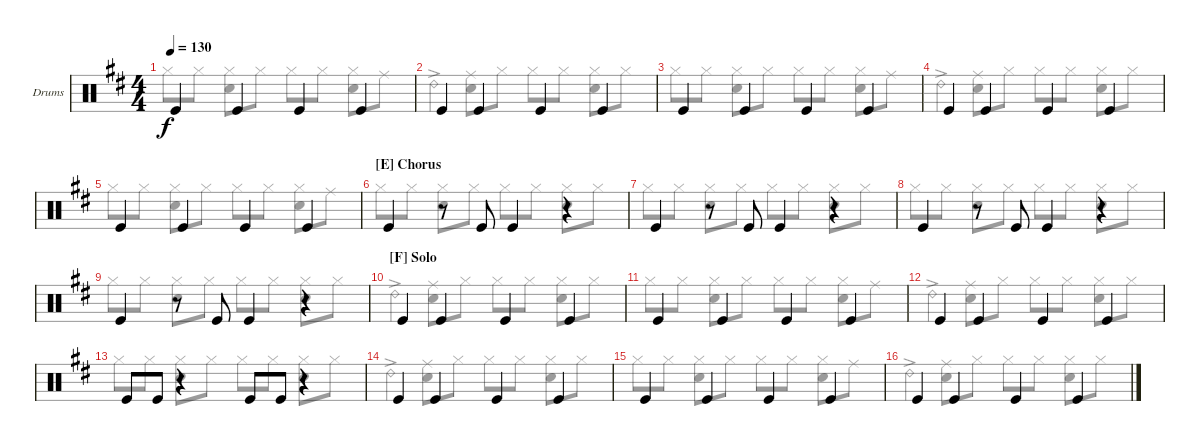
\bracketExtendMode groupsimilarinstruments
\firstSystemTrackNameOrientation horizontal
\otherSystemsTrackNameOrientation horizontal
\track ("Drumkit" "Drums") {instrument percussion}
\staff {score}
\articulation defaults
\voice
\ts (4 4)
\tempo 130
\clef neutral
\scale
1.05044
\ks d "Kick (hit)".4{dy f} "Kick (hit)".4 "Kick (hit)".4 "Kick (hit)".4
|
\scale
0.949559 "Kick (hit)".4 "Kick (hit)".4 "Kick (hit)".4 "Kick (hit)".4 |
\scale
1.05044 "Kick (hit)".4 "Kick (hit)".4 "Kick (hit)".4 "Kick (hit)".4 |
\scale
0.949559 "Kick (hit)".4 "Kick (hit)".4 "Kick (hit)".4 "Kick (hit)".4 |
\scale
1.05044 "Kick (hit)".4 "Kick (hit)".4 "Kick (hit)".4 "Kick (hit)".4 |
\section ("E" "Chorus")
\scale
0.949559 "Kick (hit)".4 r.8 "Kick (hit)".8 "Kick (hit)".4 r.4 |
\scale
1.05044 "Kick (hit)".4 r.8 "Kick (hit)".8 "Kick (hit)".4 r.4 |
\scale
0.949559 "Kick (hit)".4 r.8 "Kick (hit)".8 "Kick (hit)".4 r.4 |
\scale
1.05044 "Kick (hit)".4 r.8 "Kick (hit)".8 "Kick (hit)".4 r.4 |
\section ("F" "Solo")
\scale
0.949559 "Kick (hit)".4 "Kick (hit)".4 "Kick (hit)".4 "Kick (hit)".4 |
\scale
1.05044 "Kick (hit)".4 "Kick (hit)".4 "Kick (hit)".4 "Kick (hit)".4 |
\scale
0.949559 "Kick (hit)".4 "Kick (hit)".4 "Kick (hit)".4 "Kick (hit)".4 |
\scale
1.05044 "Kick (hit)".8 "Kick (hit)".8 r.4 "Kick (hit)".8 "Kick (hit)".8 r.4 |
\scale
0.949559 "Kick (hit)".4 "Kick (hit)".4 "Kick (hit)".4 "Kick (hit)".4 |
\scale
1.05044 "Kick (hit)".4 "Kick (hit)".4 "Kick (hit)".4 "Kick (hit)".4 |
\scale
0.949559 "Kick (hit)".4 "Kick (hit)".4 "Kick (hit)".4 "Kick (hit)".4
\voice
\clef neutral
\ottava regular
\simile none
\scale
1.05044
\ks d "Hi-Hat (closed)".8{dy f} "Hi-Hat (closed)".8
("Hi-Hat (closed)" "Snare (hit) 2").8 "Hi-Hat (closed)".8 "Hi-Hat (closed)".8 "Hi-Hat (closed)".8 ("Hi-Hat (closed)" "Snare (hit) 2").8 "Ride (middle)".8 |
\scale
0.949559 "Ride (bell) 2"{ac}.4 ("Snare (hit) 2" "Ride (middle)").8 "Hi-Hat (closed)".8 "Hi-Hat (closed)".8 "Hi-Hat (closed)".8 ("Hi-Hat (closed)" "Snare (hit) 2").8 "Hi-Hat (closed)".8 |
\scale
1.05044 "Hi-Hat (closed)".8 "Hi-Hat (closed)".8 ("Hi-Hat (closed)" "Snare (hit) 2").8 "Hi-Hat (closed)".8 "Hi-Hat (closed)".8 "Hi-Hat (closed)".8 ("Hi-Hat (closed)" "Snare (hit) 2").8 "Ride (middle)".8 |
\scale
0.949559 "Ride (bell) 2"{ac}.4 ("Snare (hit) 2" "Ride (middle)").8 "Hi-Hat (closed)".8 "Hi-Hat (closed)".8 "Hi-Hat (closed)".8 ("Hi-Hat (closed)" "Snare (hit) 2").8 "Hi-Hat (closed)".8 |
\scale
1.05044 "Hi-Hat (closed)".8 "Hi-Hat (closed)".8 ("Hi-Hat (closed)" "Snare (hit) 2").8 "Hi-Hat (closed)".8 "Hi-Hat (closed)".8 "Hi-Hat (closed)".8 ("Hi-Hat (closed)" "Snare (hit) 2").8 "Ride (middle)".8 |
\scale
0.949559 "Hi-Hat (closed)".8 "Hi-Hat (closed)".8 ("Hi-Hat (closed)" "Snare (hit) 2").8 "Hi-Hat (closed)".8 "Hi-Hat (closed)".8 "Hi-Hat (closed)".8 ("Hi-Hat (closed)" "Snare (hit) 2").8 "Hi-Hat (closed)".8 |
\scale
1.05044 "Hi-Hat (closed)".8 "Hi-Hat (closed)".8 ("Hi-Hat (closed)" "Snare (hit) 2").8 "Hi-Hat (closed)".8 "Hi-Hat (closed)".8 "Hi-Hat (closed)".8 ("Hi-Hat (closed)" "Snare (hit) 2").8 "Hi-Hat (closed)".8 |
\scale
0.949559 "Hi-Hat (closed)".8 "Hi-Hat (closed)".8 ("Hi-Hat (closed)" "Snare (hit) 2").8 "Hi-Hat (closed)".8 "Hi-Hat (closed)".8 "Hi-Hat (closed)".8 ("Hi-Hat (closed)" "Snare (hit) 2").8 "Hi-Hat (closed)".8 |
\scale
1.05044 "Hi-Hat (closed)".8 "Hi-Hat (closed)".8 ("Hi-Hat (closed)" "Snare (hit) 2").8 "Hi-Hat (closed)".8 "Hi-Hat (closed)".8 "Hi-Hat (closed)".8 ("Hi-Hat (closed)" "Snare (hit) 2").8 "Hi-Hat (closed)".8 |
\scale
0.949559 "Ride (bell) 2"{ac}.4 ("Snare (hit) 2" "Ride (middle)").8 "Hi-Hat (closed)".8 "Hi-Hat (closed)".8 "Hi-Hat (closed)".8 ("Hi-Hat (closed)" "Snare (hit) 2").8 "Hi-Hat (closed)".8 |
\scale
1.05044 "Hi-Hat (closed)".8 "Hi-Hat (closed)".8 ("Hi-Hat (closed)" "Snare (hit) 2").8 "Hi-Hat (closed)".8 "Hi-Hat (closed)".8 "Hi-Hat (closed)".8 ("Hi-Hat (closed)" "Snare (hit) 2").8 "Ride (middle)".8 |
\scale
0.949559 "Ride (bell) 2"{ac}.4 ("Snare (hit) 2" "Ride (middle)").8 "Hi-Hat (closed)".8 "Hi-Hat (closed)".8 "Hi-Hat (closed)".8 ("Hi-Hat (closed)" "Snare (hit) 2").8 "Hi-Hat (closed)".8 |
\scale
1.05044 "Hi-Hat (closed)".8 "Hi-Hat (closed)".8 ("Hi-Hat (closed)" "Snare (hit) 2").8 "Hi-Hat (closed)".8 "Hi-Hat (closed)".8 "Hi-Hat (closed)".8 ("Hi-Hat (closed)" "Snare (hit) 2").8 "Hi-Hat (closed)".8 |
\scale
0.949559 "Ride (bell) 2"{ac}.4 ("Snare (hit) 2" "Ride (middle)").8 "Hi-Hat (closed)".8 "Hi-Hat (closed)".8 "Hi-Hat (closed)".8 ("Hi-Hat (closed)" "Snare (hit) 2").8 "Hi-Hat (closed)".8 |
\scale
1.05044 "Hi-Hat (closed)".8 "Hi-Hat (closed)".8 ("Hi-Hat (closed)" "Snare (hit) 2").8 "Hi-Hat (closed)".8 "Hi-Hat (closed)".8 "Hi-Hat (closed)".8 ("Hi-Hat (closed)" "Snare (hit) 2").8 "Ride (middle)".8 |
\scale
0.949559 "Ride (bell) 2"{ac}.4 ("Snare (hit) 2" "Ride (middle)").8 "Hi-Hat (closed)".8 "Hi-Hat (closed)".8 "Hi-Hat (closed)".8 ("Hi-Hat (closed)" "Snare (hit) 2").8 "Hi-Hat (closed)".8
